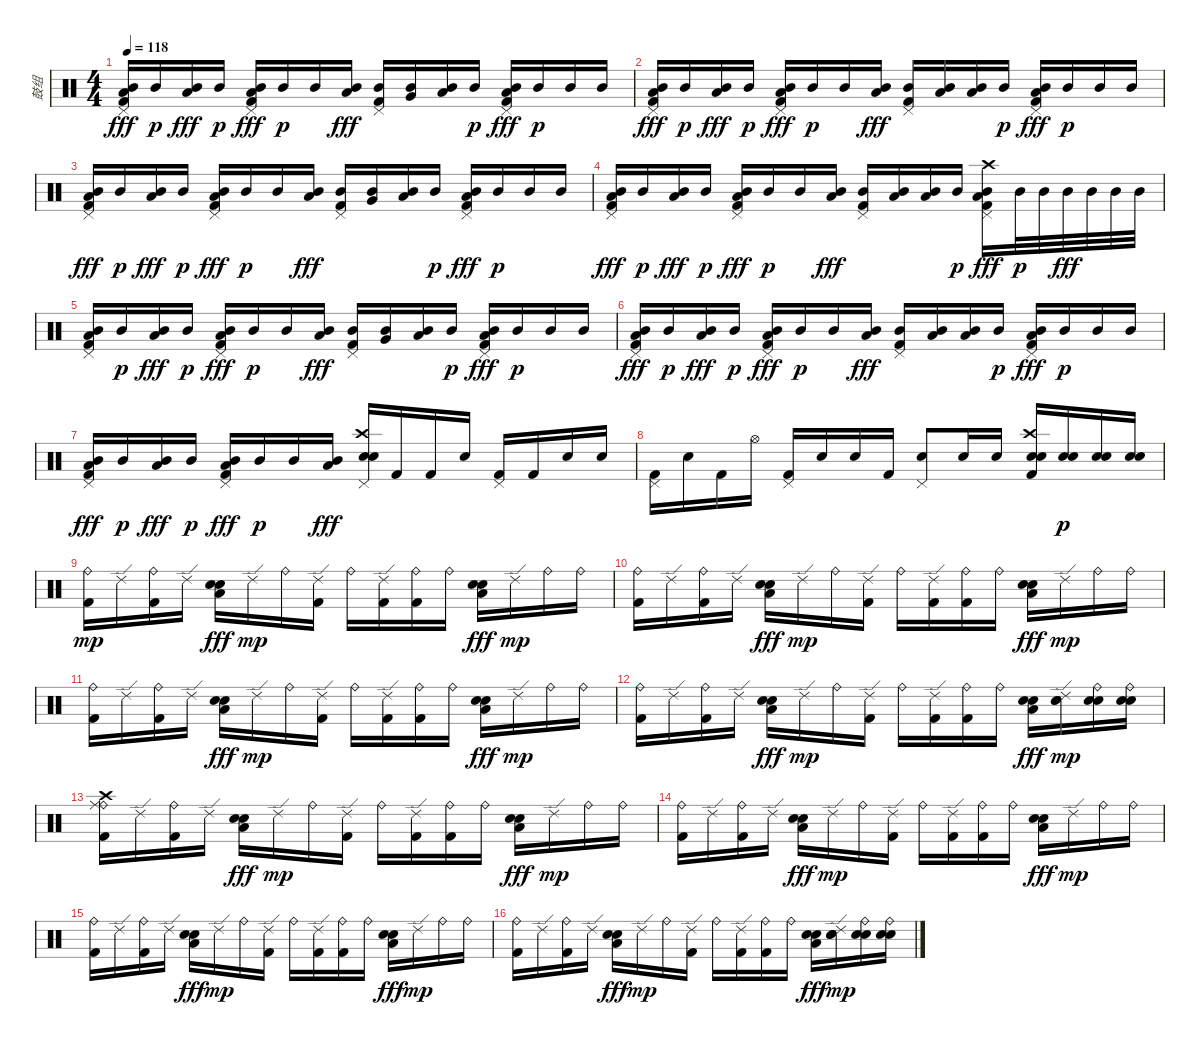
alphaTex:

\track ("鼓组" "鼓组") {instrument percussion}
\staff {score}
\articulation defaults
\ts (4 4)
\tempo 118
\clef neutral
\ks c
("Pedal Hi-Hat (hit)" "Mid Tom (hit)" "Low Floor Tom (hit)" "Kick (hit) 2").16{dy fff} "Mid Tom (hit)".16{dy p} ("Mid Tom (hit)" "Low Floor Tom (hit)").16{dy fff} "Mid Tom (hit)".16{dy p} ("Low Tom (hit)" "Mid Tom (hit)" "Pedal Hi-Hat (hit)" "Kick (hit) 2").16{dy fff} "Mid Tom (hit)".16{dy p} "Mid Tom (hit)".16 ("Mid Tom (hit)" "Low Tom (hit)").16{dy fff} ("Pedal Hi-Hat (hit)" "Mid Tom (hit)" "Kick (hit) 2").16 ("Mid Tom (hit)" "Very Low Tom (hit)").16 ("Mid Tom (hit)" "Low Floor Tom (hit)").16 "Mid Tom (hit)".16{dy p} ("Low Tom (hit)" "Mid Tom (hit)" "Pedal Hi-Hat (hit)" "Kick (hit) 2").16{dy fff} "Mid Tom (hit)".16{dy p} "Mid Tom (hit)".16 "Mid Tom (hit)".16 |
("Pedal Hi-Hat (hit)" "Mid Tom (hit)" "Low Floor Tom (hit)" "Kick (hit) 2").16{dy fff} "Mid Tom (hit)".16{dy p} ("Mid Tom (hit)" "Low Floor Tom (hit)").16{dy fff} "Mid Tom (hit)".16{dy p} ("Low Tom (hit)" "Mid Tom (hit)" "Pedal Hi-Hat (hit)" "Kick (hit) 2").16{dy fff} "Mid Tom (hit)".16{dy p} "Mid Tom (hit)".16 ("Mid Tom (hit)" "Low Tom (hit)").16{dy fff} ("Pedal Hi-Hat (hit)" "Mid Tom (hit)" "Kick (hit) 2").16 ("Mid Tom (hit)" "Low Tom (hit)").16 ("Mid Tom (hit)" "Low Tom (hit)").16 "Mid Tom (hit)".16{dy p} ("Low Tom (hit)" "Mid Tom (hit)" "Pedal Hi-Hat (hit)" "Kick (hit) 2").16{dy fff} "Mid Tom (hit)".16{dy p} "Mid Tom (hit)".16 "Mid Tom (hit)".16 |
("Pedal Hi-Hat (hit)" "Mid Tom (hit)" "Low Floor Tom (hit)" "Kick (hit) 2").16{dy fff} "Mid Tom (hit)".16{dy p} ("Mid Tom (hit)" "Low Floor Tom (hit)").16{dy fff} "Mid Tom (hit)".16{dy p} ("Low Tom (hit)" "Mid Tom (hit)" "Pedal Hi-Hat (hit)" "Kick (hit) 2").16{dy fff} "Mid Tom (hit)".16{dy p} "Mid Tom (hit)".16 ("Mid Tom (hit)" "Low Tom (hit)").16{dy fff} ("Pedal Hi-Hat (hit)" "Mid Tom (hit)" "Kick (hit) 2").16 ("Mid Tom (hit)" "Very Low Tom (hit)").16 ("Mid Tom (hit)" "Low Floor Tom (hit)").16 "Mid Tom (hit)".16{dy p} ("Low Tom (hit)" "Mid Tom (hit)" "Pedal Hi-Hat (hit)" "Kick (hit) 2").16{dy fff} "Mid Tom (hit)".16{dy p} "Mid Tom (hit)".16 "Mid Tom (hit)".16 |
("Pedal Hi-Hat (hit)" "Mid Tom (hit)" "Low Floor Tom (hit)" "Kick (hit) 2").16{dy fff} "Mid Tom (hit)".16{dy p} ("Mid Tom (hit)" "Low Floor Tom (hit)").16{dy fff} "Mid Tom (hit)".16{dy p} ("Low Tom (hit)" "Mid Tom (hit)" "Pedal Hi-Hat (hit)" "Kick (hit) 2").16{dy fff} "Mid Tom (hit)".16{dy p} "Mid Tom (hit)".16 ("Mid Tom (hit)" "Low Tom (hit)").16{dy fff} ("Pedal Hi-Hat (hit)" "Mid Tom (hit)" "Kick (hit) 2").16 ("Mid Tom (hit)" "Low Tom (hit)").16 ("Mid Tom (hit)" "Low Tom (hit)").16 "Mid Tom (hit)".16{dy p} ("Low Tom (hit)" "Mid Tom (hit)" "Pedal Hi-Hat (hit)" "Crash high (hit)" "Kick (hit) 2").16{dy fff} "Mid Tom (hit)".32{dy p} "Mid Tom (hit)".32 "Mid Tom (hit)".32{dy fff} "Mid Tom (hit)".32 "Mid Tom (hit)".32 "Mid Tom (hit)".32 |
("Pedal Hi-Hat (hit)" "Mid Tom (hit)" "Low Floor Tom (hit)" "Kick (hit) 2").16 "Mid Tom (hit)".16{dy p} ("Mid Tom (hit)" "Low Floor Tom (hit)").16{dy fff} "Mid Tom (hit)".16{dy p} ("Low Tom (hit)" "Mid Tom (hit)" "Pedal Hi-Hat (hit)" "Kick (hit) 2").16{dy fff} "Mid Tom (hit)".16{dy p} "Mid Tom (hit)".16 ("Mid Tom (hit)" "Low Tom (hit)").16{dy fff} ("Pedal Hi-Hat (hit)" "Mid Tom (hit)" "Kick (hit) 2").16 ("Mid Tom (hit)" "Very Low Tom (hit)").16 ("Mid Tom (hit)" "Low Floor Tom (hit)").16 "Mid Tom (hit)".16{dy p} ("Low Tom (hit)" "Mid Tom (hit)" "Pedal Hi-Hat (hit)" "Kick (hit) 2").16{dy fff} "Mid Tom (hit)".16{dy p} "Mid Tom (hit)".16 "Mid Tom (hit)".16 |
("Pedal Hi-Hat (hit)" "Mid Tom (hit)" "Low Floor Tom (hit)" "Kick (hit) 2").16{dy fff} "Mid Tom (hit)".16{dy p} ("Mid Tom (hit)" "Low Floor Tom (hit)").16{dy fff} "Mid Tom (hit)".16{dy p} ("Low Tom (hit)" "Mid Tom (hit)" "Pedal Hi-Hat (hit)" "Kick (hit) 2").16{dy fff} "Mid Tom (hit)".16{dy p} "Mid Tom (hit)".16 ("Mid Tom (hit)" "Low Tom (hit)").16{dy fff} ("Pedal Hi-Hat (hit)" "Mid Tom (hit)" "Kick (hit) 2").16 ("Mid Tom (hit)" "Low Tom (hit)").16 ("Mid Tom (hit)" "Low Tom (hit)").16 "Mid Tom (hit)".16{dy p} ("Low Tom (hit)" "Mid Tom (hit)" "Pedal Hi-Hat (hit)" "Kick (hit) 2").16{dy fff} "Mid Tom (hit)".16{dy p} "Mid Tom (hit)".16 "Mid Tom (hit)".16 |
("Pedal Hi-Hat (hit)" "Mid Tom (hit)" "Low Floor Tom (hit)" "Kick (hit) 2").16{dy fff} "Mid Tom (hit)".16{dy p} ("Mid Tom (hit)" "Low Floor Tom (hit)").16{dy fff} "Mid Tom (hit)".16{dy p} ("Low Tom (hit)" "Mid Tom (hit)" "Pedal Hi-Hat (hit)" "Kick (hit) 2").16{dy fff} "Mid Tom (hit)".16{dy p} "Mid Tom (hit)".16 ("Mid Tom (hit)" "Low Tom (hit)").16{dy fff} ("Pedal Hi-Hat (hit)" "Snare (hit) 2" "Electric Snare (hit)" "Crash high (hit)").16 "Kick (hit) 2".16 "Kick (hit) 2".16 "Snare (hit) 2".16 ("Pedal Hi-Hat (hit)" "Kick (hit) 2").16 "Kick (hit) 2".16 "Snare (hit) 2".16 "Snare (hit) 2".16 |
("Pedal Hi-Hat (hit)" "Kick (hit) 2").16 "Snare (hit) 2".16 "Kick (hit) 2".16 "Hi-Hat (open)".16 ("Pedal Hi-Hat (hit)" "Kick (hit) 2").16 "Snare (hit) 2".16 "Snare (hit) 2".16 "Kick (hit) 2".16 ("Pedal Hi-Hat (hit)" "Snare (hit) 2").8 "Snare (hit) 2".16 "Snare (hit) 2".16 ("Electric Snare (hit)" "Snare (hit) 2" "Crash high (hit)" "Kick (hit) 2").16 ("Electric Snare (hit)" "Snare (hit) 2").16{dy p} ("Electric Snare (hit)" "Snare (hit) 2").16 ("Electric Snare (hit)" "Snare (hit) 2").16 |
("Ride (bell)" "Kick (hit) 2").16{dy mp} "Ride (edge) 2".16 ("Ride (bell)" "Kick (hit) 2").16 "Ride (edge) 2".16 ("Low Tom (hit)" "Snare (hit) 2" "Electric Snare (hit)").16{dy fff} "Ride (edge) 2".16{dy mp} "Ride (bell)".16 ("Ride (edge) 2" "Kick (hit) 2").16 "Ride (bell)".16 ("Ride (edge) 2" "Kick (hit) 2").16 ("Ride (bell)" "Kick (hit) 2").16 "Ride (bell)".16 ("Low Tom (hit)" "Electric Snare (hit)" "Snare (hit) 2").16{dy fff} "Ride (edge) 2".16{dy mp} "Ride (bell)".16 "Ride (bell)".16 |
("Ride (bell)" "Kick (hit) 2").16 "Ride (edge) 2".16 ("Ride (bell)" "Kick (hit) 2").16 "Ride (edge) 2".16 ("Low Tom (hit)" "Snare (hit) 2" "Electric Snare (hit)").16{dy fff} "Ride (edge) 2".16{dy mp} "Ride (bell)".16 ("Ride (edge) 2" "Kick (hit) 2").16 "Ride (bell)".16 ("Ride (edge) 2" "Kick (hit) 2").16 ("Ride (bell)" "Kick (hit) 2").16 "Ride (bell)".16 ("Low Tom (hit)" "Electric Snare (hit)" "Snare (hit) 2").16{dy fff} "Ride (edge) 2".16{dy mp} "Ride (bell)".16 "Ride (bell)".16 |
("Ride (bell)" "Kick (hit) 2").16 "Ride (edge) 2".16 ("Ride (bell)" "Kick (hit) 2").16 "Ride (edge) 2".16 ("Low Tom (hit)" "Snare (hit) 2" "Electric Snare (hit)").16{dy fff} "Ride (edge) 2".16{dy mp} "Ride (bell)".16 ("Ride (edge) 2" "Kick (hit) 2").16 "Ride (bell)".16 ("Ride (edge) 2" "Kick (hit) 2").16 ("Ride (bell)" "Kick (hit) 2").16 "Ride (bell)".16 ("Low Tom (hit)" "Electric Snare (hit)" "Snare (hit) 2").16{dy fff} "Ride (edge) 2".16{dy mp} "Ride (bell)".16 "Ride (bell)".16 |
("Ride (bell)" "Kick (hit) 2").16 "Ride (edge) 2".16 ("Ride (bell)" "Kick (hit) 2").16 "Ride (edge) 2".16 ("Low Tom (hit)" "Snare (hit) 2" "Electric Snare (hit)").16{dy fff} "Ride (edge) 2".16{dy mp} "Ride (bell)".16 ("Ride (edge) 2" "Kick (hit) 2").16 "Ride (bell)".16 ("Ride (edge) 2" "Kick (hit) 2").16 ("Ride (bell)" "Kick (hit) 2").16 "Ride (bell)".16 ("Low Tom (hit)" "Electric Snare (hit)" "Snare (hit) 2").16{dy fff} ("Ride (edge) 2" "Electric Snare (hit)" "Snare (hit) 2").16{dy mp} ("Ride (bell)" "Electric Snare (hit)" "Snare (hit) 2").16 ("Ride (bell)" "Electric Snare (hit)" "Snare (hit) 2").16 |
("Ride (bell)" "Ride (middle)" "Crash high (hit)" "Kick (hit) 2").16 "Ride (edge) 2".16 ("Ride (bell)" "Kick (hit) 2").16 "Ride (edge) 2".16 ("Low Tom (hit)" "Snare (hit) 2" "Electric Snare (hit)").16{dy fff} "Ride (edge) 2".16{dy mp} "Ride (bell)".16 ("Ride (edge) 2" "Kick (hit) 2").16 "Ride (bell)".16 ("Ride (edge) 2" "Kick (hit) 2").16 ("Ride (bell)" "Kick (hit) 2").16 "Ride (bell)".16 ("Low Tom (hit)" "Electric Snare (hit)" "Snare (hit) 2").16{dy fff} "Ride (edge) 2".16{dy mp} "Ride (bell)".16 "Ride (bell)".16 |
("Ride (bell)" "Kick (hit) 2").16 "Ride (edge) 2".16 ("Ride (bell)" "Kick (hit) 2").16 "Ride (edge) 2".16 ("Low Tom (hit)" "Snare (hit) 2" "Electric Snare (hit)").16{dy fff} "Ride (edge) 2".16{dy mp} "Ride (bell)".16 ("Ride (edge) 2" "Kick (hit) 2").16 "Ride (bell)".16 ("Ride (edge) 2" "Kick (hit) 2").16 ("Ride (bell)" "Kick (hit) 2").16 "Ride (bell)".16 ("Low Tom (hit)" "Electric Snare (hit)" "Snare (hit) 2").16{dy fff} "Ride (edge) 2".16{dy mp} "Ride (bell)".16 "Ride (bell)".16 |
("Ride (bell)" "Kick (hit) 2").16 "Ride (edge) 2".16 ("Ride (bell)" "Kick (hit) 2").16 "Ride (edge) 2".16 ("Low Tom (hit)" "Snare (hit) 2" "Electric Snare (hit)").16{dy fff} "Ride (edge) 2".16{dy mp} "Ride (bell)".16 ("Ride (edge) 2" "Kick (hit) 2").16 "Ride (bell)".16 ("Ride (edge) 2" "Kick (hit) 2").16 ("Ride (bell)" "Kick (hit) 2").16 "Ride (bell)".16 ("Low Tom (hit)" "Electric Snare (hit)" "Snare (hit) 2").16{dy fff} "Ride (edge) 2".16{dy mp} "Ride (bell)".16 "Ride (bell)".16 |
("Ride (bell)" "Kick (hit) 2").16 "Ride (edge) 2".16 ("Ride (bell)" "Kick (hit) 2").16 "Ride (edge) 2".16 ("Low Tom (hit)" "Snare (hit) 2" "Electric Snare (hit)").16{dy fff} "Ride (edge) 2".16{dy mp} "Ride (bell)".16 ("Ride (edge) 2" "Kick (hit) 2").16 "Ride (bell)".16 ("Ride (edge) 2" "Kick (hit) 2").16 ("Ride (bell)" "Kick (hit) 2").16 "Ride (bell)".16 ("Low Tom (hit)" "Electric Snare (hit)" "Snare (hit) 2").16{dy fff} ("Ride (edge) 2" "Electric Snare (hit)" "Snare (hit) 2").16{dy mp} ("Ride (bell)" "Electric Snare (hit)" "Snare (hit) 2").16 ("Ride (bell)" "Electric Snare (hit)" "Snare (hit) 2").16
